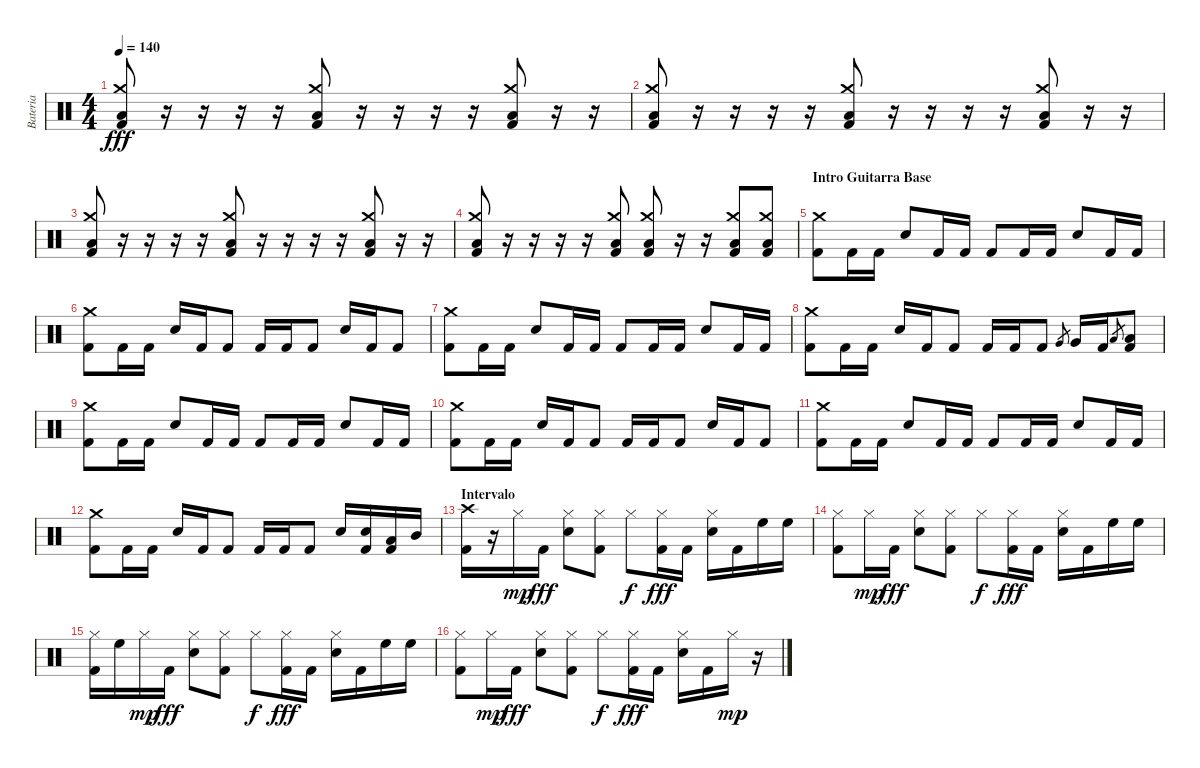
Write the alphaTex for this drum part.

\track ("Bateria" "Bateria") {instrument percussion}
\staff {score}
\articulation defaults
\ts (4 4)
\tempo 140
\clef neutral
\ks c
("Low Floor Tom (hit)" "Crash medium (hit)" "Kick (hit) 2").8{dy fff} r.16 r.16 r.16 r.16 ("Low Floor Tom (hit)" "Crash medium (hit)" "Kick (hit) 2").8 r.16 r.16 r.16 r.16 ("Low Floor Tom (hit)" "Crash medium (hit)" "Kick (hit) 2").8 r.16 r.16 |
("Low Floor Tom (hit)" "Crash medium (hit)" "Kick (hit) 2").8 r.16 r.16 r.16 r.16 ("Low Floor Tom (hit)" "Crash medium (hit)" "Kick (hit) 2").8 r.16 r.16 r.16 r.16 ("Low Floor Tom (hit)" "Crash medium (hit)" "Kick (hit) 2").8 r.16 r.16 |
("Low Floor Tom (hit)" "Crash medium (hit)" "Kick (hit) 2").8 r.16 r.16 r.16 r.16 ("Low Floor Tom (hit)" "Crash medium (hit)" "Kick (hit) 2").8 r.16 r.16 r.16 r.16 ("Low Floor Tom (hit)" "Crash medium (hit)" "Kick (hit) 2").8 r.16 r.16 |
("Low Floor Tom (hit)" "Crash medium (hit)" "Kick (hit) 2").8 r.16 r.16 r.16 r.16 ("Low Floor Tom (hit)" "Crash medium (hit)" "Kick (hit) 2").8 ("Low Floor Tom (hit)" "Crash medium (hit)" "Kick (hit) 2").8 r.16 r.16 ("Low Floor Tom (hit)" "Crash medium (hit)" "Kick (hit) 2").8 ("Low Floor Tom (hit)" "Crash medium (hit)" "Kick (hit) 2").8 |
\section ("" "Intro Guitarra Base")
("Kick (hit) 2" "Crash medium (hit)").8 "Kick (hit) 2".16 "Kick (hit) 2".16 "Metronome (bell)".8 "Kick (hit) 2".16 "Kick (hit) 2".16 "Kick (hit) 2".8 "Kick (hit) 2".16 "Kick (hit) 2".16 "Metronome (bell)".8 "Kick (hit) 2".16 "Kick (hit) 2".16 |
("Kick (hit) 2" "Crash medium (hit)").8 "Kick (hit) 2".16 "Kick (hit) 2".16 "Metronome (bell)".16 "Kick (hit) 2".16 "Kick (hit) 2".8 "Kick (hit) 2".16 "Kick (hit) 2".16 "Kick (hit) 2".8 "Metronome (bell)".16 "Kick (hit) 2".16 "Kick (hit) 2".8 |
("Kick (hit) 2" "Crash medium (hit)").8 "Kick (hit) 2".16 "Kick (hit) 2".16 "Metronome (bell)".8 "Kick (hit) 2".16 "Kick (hit) 2".16 "Kick (hit) 2".8 "Kick (hit) 2".16 "Kick (hit) 2".16 "Metronome (bell)".8 "Kick (hit) 2".16 "Kick (hit) 2".16 |
("Kick (hit) 2" "Crash medium (hit)").8 "Kick (hit) 2".16 "Kick (hit) 2".16 "Metronome (bell)".16 "Kick (hit) 2".16 "Kick (hit) 2".8 "Kick (hit) 2".16 "Kick (hit) 2".16 "Kick (hit) 2".8 "Very Low Tom (hit)".8{gr} "Very Low Tom (hit)".16 "Kick (hit) 2".16 "Low Tom (hit)".8{gr} ("Kick (hit) 2" "Low Tom (hit)").8 |
("Kick (hit) 2" "Crash medium (hit)").8 "Kick (hit) 2".16 "Kick (hit) 2".16 "Metronome (bell)".8 "Kick (hit) 2".16 "Kick (hit) 2".16 "Kick (hit) 2".8 "Kick (hit) 2".16 "Kick (hit) 2".16 "Metronome (bell)".8 "Kick (hit) 2".16 "Kick (hit) 2".16 |
("Kick (hit) 2" "Crash medium (hit)").8 "Kick (hit) 2".16 "Kick (hit) 2".16 "Metronome (bell)".16 "Kick (hit) 2".16 "Kick (hit) 2".8 "Kick (hit) 2".16 "Kick (hit) 2".16 "Kick (hit) 2".8 "Metronome (bell)".16 "Kick (hit) 2".16 "Kick (hit) 2".8 |
("Kick (hit) 2" "Crash medium (hit)").8 "Kick (hit) 2".16 "Kick (hit) 2".16 "Metronome (bell)".8 "Kick (hit) 2".16 "Kick (hit) 2".16 "Kick (hit) 2".8 "Kick (hit) 2".16 "Kick (hit) 2".16 "Metronome (bell)".8 "Kick (hit) 2".16 "Kick (hit) 2".16 |
("Kick (hit) 2" "Crash medium (hit)").8 "Kick (hit) 2".16 "Kick (hit) 2".16 "Metronome (bell)".16 "Kick (hit) 2".16 "Kick (hit) 2".8 "Kick (hit) 2".16 "Kick (hit) 2".16 "Kick (hit) 2".8 "Metronome (bell)".16 ("Kick (hit) 2" "Metronome (bell)").16 ("Kick (hit) 2" "Low Tom (hit)").16 "Mid Tom (hit)".16 |
\section ("" "Intervalo")
("Crash high (hit)" "Kick (hit) 2").16 r.16 "Hi-Hat (closed)".16{dy mp} "Kick (hit) 2".16{dy fff} ("Hi-Hat (closed)" "Electric Snare (hit)").8 ("Hi-Hat (closed)" "Kick (hit) 2").8 "Hi-Hat (closed)".8{dy f} ("Hi-Hat (closed)" "Kick (hit) 2").16{dy fff} "Kick (hit) 2".16 ("Hi-Hat (closed)" "Electric Snare (hit)").16 "Kick (hit) 2".16 "High Floor Tom (hit)".16 "High Floor Tom (hit)".16 |
("Hi-Hat (closed)" "Kick (hit) 2").8 "Hi-Hat (closed)".16{dy mp} "Kick (hit) 2".16{dy fff} ("Hi-Hat (closed)" "Electric Snare (hit)").8 ("Hi-Hat (closed)" "Kick (hit) 2").8 "Hi-Hat (closed)".8{dy f} ("Hi-Hat (closed)" "Kick (hit) 2").16{dy fff} "Kick (hit) 2".16 ("Hi-Hat (closed)" "Electric Snare (hit)").16 "Kick (hit) 2".16 "High Floor Tom (hit)".16 "High Floor Tom (hit)".16 |
("Hi-Hat (closed)" "Kick (hit) 2").16 "High Floor Tom (hit)".16 "Hi-Hat (closed)".16{dy mp} "Kick (hit) 2".16{dy fff} ("Hi-Hat (closed)" "Electric Snare (hit)").8 ("Hi-Hat (closed)" "Kick (hit) 2").8 "Hi-Hat (closed)".8{dy f} ("Hi-Hat (closed)" "Kick (hit) 2").16{dy fff} "Kick (hit) 2".16 ("Hi-Hat (closed)" "Electric Snare (hit)").16 "Kick (hit) 2".16 "High Floor Tom (hit)".16 "High Floor Tom (hit)".16 |
("Hi-Hat (closed)" "Kick (hit) 2").8 "Hi-Hat (closed)".16{dy mp} "Kick (hit) 2".16{dy fff} ("Hi-Hat (closed)" "Electric Snare (hit)").8 ("Hi-Hat (closed)" "Kick (hit) 2").8 "Hi-Hat (closed)".8{dy f} ("Hi-Hat (closed)" "Kick (hit) 2").16{dy fff} "Kick (hit) 2".16 ("Hi-Hat (closed)" "Electric Snare (hit)").16 "Kick (hit) 2".16 "Hi-Hat (closed)".16{dy mp} r.16
